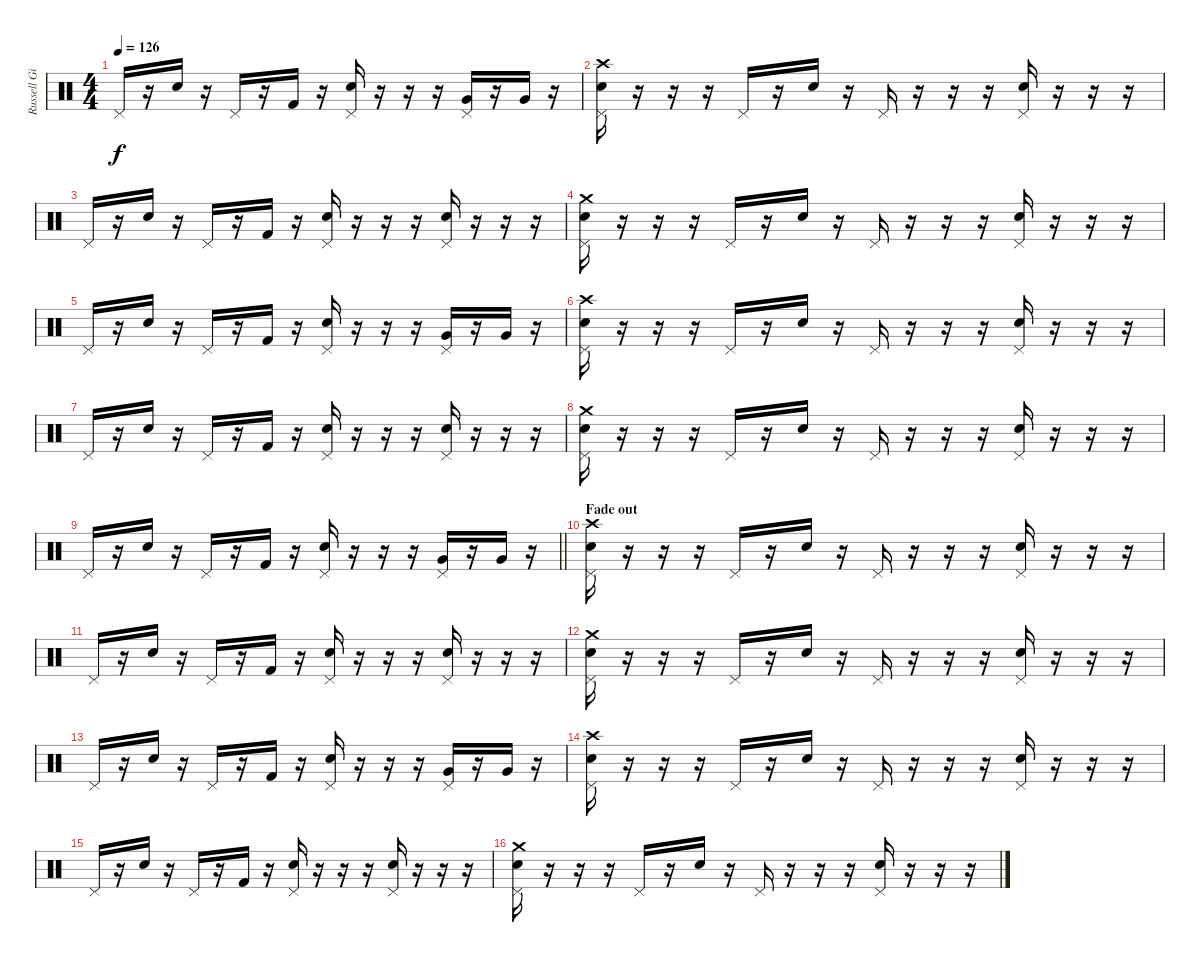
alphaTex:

\track ("Russell Gilbrook - Drums" "Russell Gi") {instrument percussion}
\staff {score}
\articulation defaults
\ts (4 4)
\tempo 126
\clef neutral
\ks c "Pedal Hi-Hat (hit)".16{dy f}
r.16 "Snare (hit) 2".16 r.16 "Pedal Hi-Hat (hit)".16 r.16 "Kick (hit) 2".16 r.16 ("Pedal Hi-Hat (hit)" "Snare (hit) 2").16 r.16 r.16 r.16 ("Very Low Tom (hit)" "Pedal Hi-Hat (hit)").16 r.16 "Very Low Tom (hit)".16 r.16 |
("Crash high (hit)" "Pedal Hi-Hat (hit)" "Snare (hit) 2").16 r.16 r.16 r.16 "Pedal Hi-Hat (hit)".16 r.16 "Snare (hit) 2".16 r.16 "Pedal Hi-Hat (hit)".16 r.16 r.16 r.16 ("Pedal Hi-Hat (hit)" "Snare (hit) 2").16 r.16 r.16 r.16 |
"Pedal Hi-Hat (hit)".16 r.16 "Snare (hit) 2".16 r.16 "Pedal Hi-Hat (hit)".16 r.16 "Kick (hit) 2".16 r.16 ("Pedal Hi-Hat (hit)" "Snare (hit) 2").16 r.16 r.16 r.16 ("Pedal Hi-Hat (hit)" "Snare (hit) 2").16 r.16 r.16 r.16 |
("Crash medium (hit)" "Pedal Hi-Hat (hit)" "Snare (hit) 2").16 r.16 r.16 r.16 "Pedal Hi-Hat (hit)".16 r.16 "Snare (hit) 2".16 r.16 "Pedal Hi-Hat (hit)".16 r.16 r.16 r.16 ("Pedal Hi-Hat (hit)" "Snare (hit) 2").16 r.16 r.16 r.16 |
"Pedal Hi-Hat (hit)".16 r.16 "Snare (hit) 2".16 r.16 "Pedal Hi-Hat (hit)".16 r.16 "Kick (hit) 2".16 r.16 ("Pedal Hi-Hat (hit)" "Snare (hit) 2").16 r.16 r.16 r.16 ("Very Low Tom (hit)" "Pedal Hi-Hat (hit)").16 r.16 "Very Low Tom (hit)".16 r.16 |
("Crash high (hit)" "Pedal Hi-Hat (hit)" "Snare (hit) 2").16 r.16 r.16 r.16 "Pedal Hi-Hat (hit)".16 r.16 "Snare (hit) 2".16 r.16 "Pedal Hi-Hat (hit)".16 r.16 r.16 r.16 ("Pedal Hi-Hat (hit)" "Snare (hit) 2").16 r.16 r.16 r.16 |
"Pedal Hi-Hat (hit)".16 r.16 "Snare (hit) 2".16 r.16 "Pedal Hi-Hat (hit)".16 r.16 "Kick (hit) 2".16 r.16 ("Pedal Hi-Hat (hit)" "Snare (hit) 2").16 r.16 r.16 r.16 ("Pedal Hi-Hat (hit)" "Snare (hit) 2").16 r.16 r.16 r.16 |
("Crash medium (hit)" "Pedal Hi-Hat (hit)" "Snare (hit) 2").16 r.16 r.16 r.16 "Pedal Hi-Hat (hit)".16 r.16 "Snare (hit) 2".16 r.16 "Pedal Hi-Hat (hit)".16 r.16 r.16 r.16 ("Pedal Hi-Hat (hit)" "Snare (hit) 2").16 r.16 r.16 r.16 |
\barLineRight lightlight "Pedal Hi-Hat (hit)".16
r.16 "Snare (hit) 2".16 r.16 "Pedal Hi-Hat (hit)".16 r.16 "Kick (hit) 2".16 r.16 ("Pedal Hi-Hat (hit)" "Snare (hit) 2").16 r.16 r.16 r.16 ("Very Low Tom (hit)" "Pedal Hi-Hat (hit)").16 r.16 "Very Low Tom (hit)".16 r.16 |
\section ("" "Fade out")
("Crash high (hit)" "Pedal Hi-Hat (hit)" "Snare (hit) 2").16{volume 12} r.16 r.16 r.16 "Pedal Hi-Hat (hit)".16 r.16 "Snare (hit) 2".16 r.16 "Pedal Hi-Hat (hit)".16 r.16 r.16 r.16 ("Pedal Hi-Hat (hit)" "Snare (hit) 2").16 r.16 r.16 r.16 |
"Pedal Hi-Hat (hit)".16 r.16 "Snare (hit) 2".16 r.16 "Pedal Hi-Hat (hit)".16 r.16 "Kick (hit) 2".16 r.16 ("Pedal Hi-Hat (hit)" "Snare (hit) 2").16 r.16 r.16 r.16 ("Pedal Hi-Hat (hit)" "Snare (hit) 2").16 r.16 r.16 r.16 |
("Crash medium (hit)" "Pedal Hi-Hat (hit)" "Snare (hit) 2").16 r.16 r.16 r.16 "Pedal Hi-Hat (hit)".16 r.16 "Snare (hit) 2".16 r.16 "Pedal Hi-Hat (hit)".16 r.16 r.16 r.16 ("Pedal Hi-Hat (hit)" "Snare (hit) 2").16 r.16 r.16 r.16 |
"Pedal Hi-Hat (hit)".16 r.16 "Snare (hit) 2".16 r.16 "Pedal Hi-Hat (hit)".16 r.16 "Kick (hit) 2".16 r.16 ("Pedal Hi-Hat (hit)" "Snare (hit) 2").16 r.16 r.16 r.16 ("Very Low Tom (hit)" "Pedal Hi-Hat (hit)").16 r.16 "Very Low Tom (hit)".16 r.16 |
("Crash high (hit)" "Pedal Hi-Hat (hit)" "Snare (hit) 2").16{volume 8} r.16 r.16 r.16 "Pedal Hi-Hat (hit)".16 r.16 "Snare (hit) 2".16 r.16 "Pedal Hi-Hat (hit)".16 r.16 r.16 r.16 ("Pedal Hi-Hat (hit)" "Snare (hit) 2").16 r.16 r.16 r.16 |
"Pedal Hi-Hat (hit)".16 r.16 "Snare (hit) 2".16 r.16 "Pedal Hi-Hat (hit)".16 r.16 "Kick (hit) 2".16 r.16 ("Pedal Hi-Hat (hit)" "Snare (hit) 2").16 r.16 r.16 r.16 ("Pedal Hi-Hat (hit)" "Snare (hit) 2").16 r.16 r.16 r.16 |
("Crash medium (hit)" "Pedal Hi-Hat (hit)" "Snare (hit) 2").16 r.16 r.16 r.16 "Pedal Hi-Hat (hit)".16 r.16 "Snare (hit) 2".16 r.16 "Pedal Hi-Hat (hit)".16 r.16 r.16 r.16 ("Pedal Hi-Hat (hit)" "Snare (hit) 2").16 r.16 r.16 r.16
